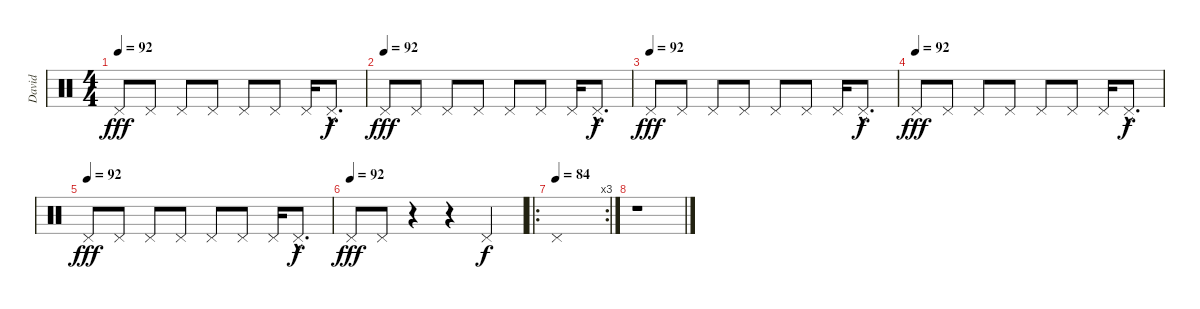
\track ("David" "David") {instrument percussion}
\staff {score}
\articulation defaults
\ts (4 4)
\tempo 92
\clef neutral
\ks c "Pedal Hi-Hat (hit)".8{dy fff} "Pedal Hi-Hat (hit)".8 "Pedal Hi-Hat (hit)".8 "Pedal Hi-Hat (hit)".8 "Pedal Hi-Hat (hit)".8 "Pedal Hi-Hat (hit)".8 "Pedal Hi-Hat (hit)".16 "Pedal Hi-Hat (hit)"{hac}.8{d dy f}
|
\tempo (92)
"Pedal Hi-Hat (hit)".8{dy fff} "Pedal Hi-Hat (hit)".8 "Pedal Hi-Hat (hit)".8 "Pedal Hi-Hat (hit)".8 "Pedal Hi-Hat (hit)".8 "Pedal Hi-Hat (hit)".8 "Pedal Hi-Hat (hit)".16 "Pedal Hi-Hat (hit)"{hac}.8{d dy f} |
\tempo (92)
"Pedal Hi-Hat (hit)".8{dy fff} "Pedal Hi-Hat (hit)".8 "Pedal Hi-Hat (hit)".8 "Pedal Hi-Hat (hit)".8 "Pedal Hi-Hat (hit)".8 "Pedal Hi-Hat (hit)".8 "Pedal Hi-Hat (hit)".16 "Pedal Hi-Hat (hit)"{hac}.8{d dy f} |
\tempo (92)
"Pedal Hi-Hat (hit)".8{dy fff} "Pedal Hi-Hat (hit)".8 "Pedal Hi-Hat (hit)".8 "Pedal Hi-Hat (hit)".8 "Pedal Hi-Hat (hit)".8 "Pedal Hi-Hat (hit)".8 "Pedal Hi-Hat (hit)".16 "Pedal Hi-Hat (hit)"{hac}.8{d dy f} |
\tempo (92)
"Pedal Hi-Hat (hit)".8{dy fff} "Pedal Hi-Hat (hit)".8 "Pedal Hi-Hat (hit)".8 "Pedal Hi-Hat (hit)".8 "Pedal Hi-Hat (hit)".8 "Pedal Hi-Hat (hit)".8 "Pedal Hi-Hat (hit)".16 "Pedal Hi-Hat (hit)"{hac}.8{d dy f} |
\tempo (92)
"Pedal Hi-Hat (hit)".8{dy fff} "Pedal Hi-Hat (hit)".8 r.4 r.4 "Pedal Hi-Hat (hit)".4{dy f} |
\ro
\rc 3
\tempo (84)
"Pedal Hi-Hat (hit)".1 |
r.1
